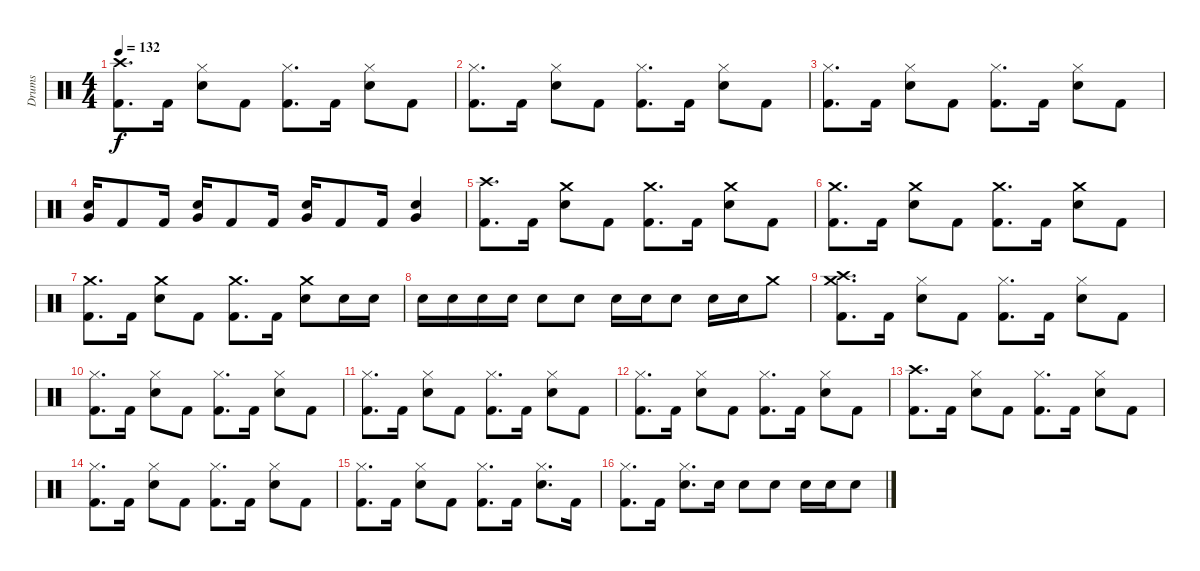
\track ("Drums" "Drums") {instrument percussion}
\staff {score}
\articulation defaults
\ts (4 4)
\tempo 132
\clef neutral
\ks c
("Crash high (hit)" "Kick (hit) 2").8{d dy f} "Kick (hit) 2".16 ("Hi-Hat (closed)" "Snare (hit) 2").8 "Kick (hit) 2".8 ("Hi-Hat (closed)" "Kick (hit) 2").8{d} "Kick (hit) 2".16 ("Hi-Hat (closed)" "Snare (hit) 2").8 "Kick (hit) 2".8 |
("Hi-Hat (closed)" "Kick (hit) 2").8{d} "Kick (hit) 2".16 ("Hi-Hat (closed)" "Snare (hit) 2").8 "Kick (hit) 2".8 ("Hi-Hat (closed)" "Kick (hit) 2").8{d} "Kick (hit) 2".16 ("Hi-Hat (closed)" "Snare (hit) 2").8 "Kick (hit) 2".8 |
("Hi-Hat (closed)" "Kick (hit) 2").8{d} "Kick (hit) 2".16 ("Hi-Hat (closed)" "Snare (hit) 2").8 "Kick (hit) 2".8 ("Hi-Hat (closed)" "Kick (hit) 2").8{d} "Kick (hit) 2".16 ("Hi-Hat (closed)" "Snare (hit) 2").8 "Kick (hit) 2".8 |
("Very Low Tom (hit)" "Snare (hit) 2").16 "Kick (hit) 2".8 "Kick (hit) 2".16 ("Very Low Tom (hit)" "Snare (hit) 2").16 "Kick (hit) 2".8 "Kick (hit) 2".16 ("Very Low Tom (hit)" "Snare (hit) 2").16 "Kick (hit) 2".8 "Kick (hit) 2".16 ("Very Low Tom (hit)" "Snare (hit) 2").4 |
("Crash high (hit)" "Kick (hit) 2").8{d} "Kick (hit) 2".16 ("Crash medium (hit)" "Snare (hit) 2").8 "Kick (hit) 2".8 ("Crash medium (hit)" "Kick (hit) 2").8{d} "Kick (hit) 2".16 ("Crash medium (hit)" "Snare (hit) 2").8 "Kick (hit) 2".8 |
("Crash medium (hit)" "Kick (hit) 2").8{d} "Kick (hit) 2".16 ("Crash medium (hit)" "Snare (hit) 2").8 "Kick (hit) 2".8 ("Crash medium (hit)" "Kick (hit) 2").8{d} "Kick (hit) 2".16 ("Crash medium (hit)" "Snare (hit) 2").8 "Kick (hit) 2".8 |
("Crash medium (hit)" "Kick (hit) 2").8{d} "Kick (hit) 2".16 ("Crash medium (hit)" "Snare (hit) 2").8 "Kick (hit) 2".8 ("Crash medium (hit)" "Kick (hit) 2").8{d} "Kick (hit) 2".16 ("Crash medium (hit)" "Snare (hit) 2").8 "Snare (hit) 2".16 "Snare (hit) 2".16 |
"Snare (hit) 2".16 "Snare (hit) 2".16 "Snare (hit) 2".16 "Snare (hit) 2".16 "Snare (hit) 2".8 "Snare (hit) 2".8 "Snare (hit) 2".16 "Snare (hit) 2".16 "Snare (hit) 2".8 "Snare (hit) 2".16 "Snare (hit) 2".16 "Crash medium (hit)".8 |
("Crash medium (hit)" "Crash high (hit)" "Kick (hit) 2").8{d} "Kick (hit) 2".16 ("Hi-Hat (closed)" "Snare (hit) 2").8 "Kick (hit) 2".8 ("Hi-Hat (closed)" "Kick (hit) 2").8{d} "Kick (hit) 2".16 ("Hi-Hat (closed)" "Snare (hit) 2").8 "Kick (hit) 2".8 |
("Hi-Hat (closed)" "Kick (hit) 2").8{d} "Kick (hit) 2".16 ("Hi-Hat (closed)" "Snare (hit) 2").8 "Kick (hit) 2".8 ("Hi-Hat (closed)" "Kick (hit) 2").8{d} "Kick (hit) 2".16 ("Hi-Hat (closed)" "Snare (hit) 2").8 "Kick (hit) 2".8 |
("Hi-Hat (closed)" "Kick (hit) 2").8{d} "Kick (hit) 2".16 ("Hi-Hat (closed)" "Snare (hit) 2").8 "Kick (hit) 2".8 ("Hi-Hat (closed)" "Kick (hit) 2").8{d} "Kick (hit) 2".16 ("Hi-Hat (closed)" "Snare (hit) 2").8 "Kick (hit) 2".8 |
("Hi-Hat (closed)" "Kick (hit) 2").8{d} "Kick (hit) 2".16 ("Hi-Hat (closed)" "Snare (hit) 2").8 "Kick (hit) 2".8 ("Hi-Hat (closed)" "Kick (hit) 2").8{d} "Kick (hit) 2".16 ("Hi-Hat (closed)" "Snare (hit) 2").8 "Kick (hit) 2".8 |
("Crash high (hit)" "Kick (hit) 2").8{d} "Kick (hit) 2".16 ("Hi-Hat (closed)" "Snare (hit) 2").8 "Kick (hit) 2".8 ("Hi-Hat (closed)" "Kick (hit) 2").8{d} "Kick (hit) 2".16 ("Hi-Hat (closed)" "Snare (hit) 2").8 "Kick (hit) 2".8 |
("Hi-Hat (closed)" "Kick (hit) 2").8{d} "Kick (hit) 2".16 ("Hi-Hat (closed)" "Snare (hit) 2").8 "Kick (hit) 2".8 ("Hi-Hat (closed)" "Kick (hit) 2").8{d} "Kick (hit) 2".16 ("Hi-Hat (closed)" "Snare (hit) 2").8 "Kick (hit) 2".8 |
("Hi-Hat (closed)" "Kick (hit) 2").8{d} "Kick (hit) 2".16 ("Hi-Hat (closed)" "Snare (hit) 2").8 "Kick (hit) 2".8 ("Hi-Hat (closed)" "Kick (hit) 2").8{d} "Kick (hit) 2".16 ("Hi-Hat (closed)" "Snare (hit) 2").8{d} "Kick (hit) 2".16 |
("Hi-Hat (closed)" "Kick (hit) 2").8{d} "Kick (hit) 2".16 ("Hi-Hat (closed)" "Snare (hit) 2").8{d} "Snare (hit) 2".16 "Snare (hit) 2".8 "Snare (hit) 2".8 "Snare (hit) 2".16 "Snare (hit) 2".16 "Snare (hit) 2".8
